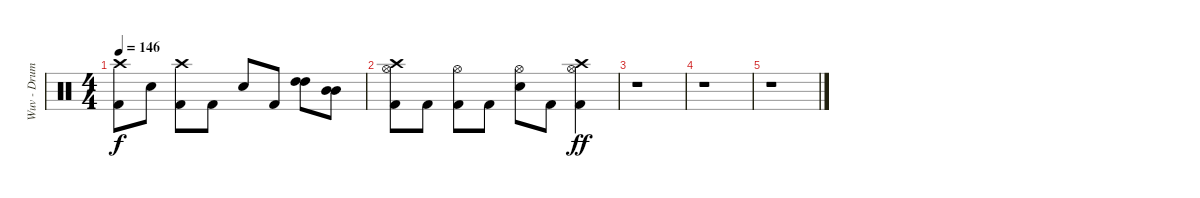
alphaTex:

\track ("Wuv - Drums" "Wuv - Drum") {instrument percussion}
\staff {score}
\articulation defaults
\ts (4 4)
\tempo 146
\clef neutral
\ks c
("Crash high (hit)" "Kick (hit) 2").8{dy f} "Electric Snare (hit)".8 ("Crash high (hit)" "Kick (hit) 2").8 "Kick (hit) 2".8 "Electric Snare (hit)".8 "Kick (hit) 2".8 ("High Tom (hit)" "High Tom (hit)").8 ("Mid Tom (hit)" "Mid Tom (hit)").8 |
("Crash high (hit)" "Hi-Hat (open)" "Kick (hit) 2").8 "Kick (hit) 2".8 ("Hi-Hat (open)" "Kick (hit) 2").8 "Kick (hit) 2".8 ("Hi-Hat (open)" "Electric Snare (hit)").8 "Kick (hit) 2".8 ("Crash high (hit)" "Hi-Hat (open)" "Kick (hit) 2").4{dy ff} |
r.1 |
r.1 |
r.1
